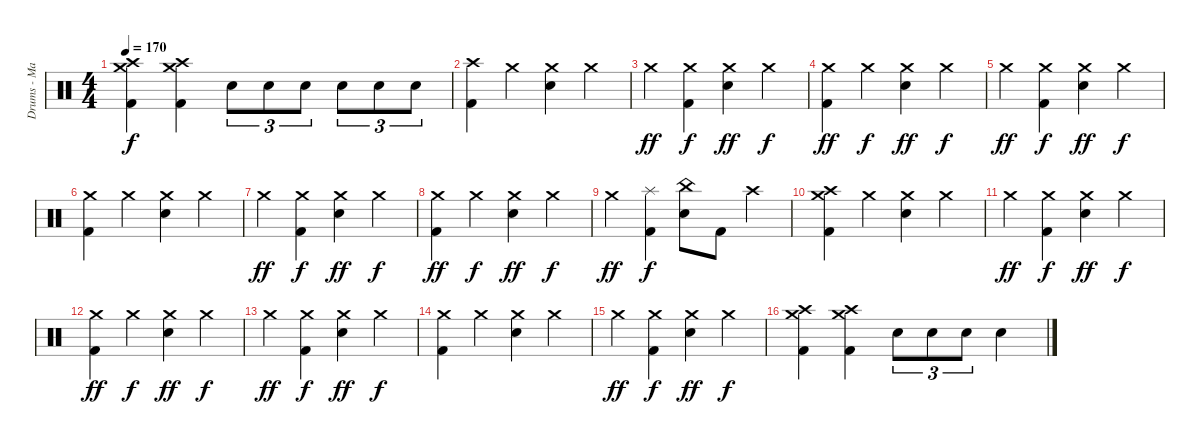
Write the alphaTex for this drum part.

\track ("Drums - Mario Duplantier" "Drums - Ma") {instrument percussion}
\staff {score}
\articulation defaults
\ts (4 4)
\tempo 170
\clef neutral
\ks c
("Crash medium (hit)" "Crash high (hit)" "Kick (hit) 2").4{dy f} ("Crash medium (hit)" "Crash high (hit)" "Kick (hit) 2").4 "Snare (hit) 2".8{tu (3 2)} "Snare (hit) 2".8{tu (3 2)} "Snare (hit) 2".8{tu (3 2)} "Snare (hit) 2".8{tu (3 2)} "Snare (hit) 2".8{tu (3 2)} "Snare (hit) 2".8{tu (3 2)} |
("Crash high (hit)" "Kick (hit) 2").4 "Crash medium (hit)".4 ("Crash medium (hit)" "Snare (hit) 2").4 "Crash medium (hit)".4 |
"Crash medium (hit)".4{dy ff} ("Crash medium (hit)" "Kick (hit) 2").4{dy f} ("Crash medium (hit)" "Snare (hit) 2").4{dy ff} "Crash medium (hit)".4{dy f} |
("Crash medium (hit)" "Kick (hit) 2").4{dy ff} "Crash medium (hit)".4{dy f} ("Crash medium (hit)" "Snare (hit) 2").4{dy ff} "Crash medium (hit)".4{dy f} |
"Crash medium (hit)".4{dy ff} ("Crash medium (hit)" "Kick (hit) 2").4{dy f} ("Crash medium (hit)" "Snare (hit) 2").4{dy ff} "Crash medium (hit)".4{dy f} |
("Crash medium (hit)" "Kick (hit) 2").4 "Crash medium (hit)".4 ("Crash medium (hit)" "Snare (hit) 2").4 "Crash medium (hit)".4 |
"Crash medium (hit)".4{dy ff} ("Crash medium (hit)" "Kick (hit) 2").4{dy f} ("Crash medium (hit)" "Snare (hit) 2").4{dy ff} "Crash medium (hit)".4{dy f} |
("Crash medium (hit)" "Kick (hit) 2").4{dy ff} "Crash medium (hit)".4{dy f} ("Crash medium (hit)" "Snare (hit) 2").4{dy ff} "Crash medium (hit)".4{dy f} |
"Crash medium (hit)".4{dy ff} ("Splash (hit)" "Kick (hit) 2").4{dy f} ("China (hit)" "Snare (hit) 2").8 "Kick (hit) 2".8 "Crash high (hit)".4 |
("Crash medium (hit)" "Crash high (hit)" "Kick (hit) 2").4 "Crash medium (hit)".4 ("Crash medium (hit)" "Snare (hit) 2").4 "Crash medium (hit)".4 |
"Crash medium (hit)".4{dy ff} ("Crash medium (hit)" "Kick (hit) 2").4{dy f} ("Crash medium (hit)" "Snare (hit) 2").4{dy ff} "Crash medium (hit)".4{dy f} |
("Crash medium (hit)" "Kick (hit) 2").4{dy ff} "Crash medium (hit)".4{dy f} ("Crash medium (hit)" "Snare (hit) 2").4{dy ff} "Crash medium (hit)".4{dy f} |
"Crash medium (hit)".4{dy ff} ("Crash medium (hit)" "Kick (hit) 2").4{dy f} ("Crash medium (hit)" "Snare (hit) 2").4{dy ff} "Crash medium (hit)".4{dy f} |
("Crash medium (hit)" "Kick (hit) 2").4 "Crash medium (hit)".4 ("Crash medium (hit)" "Snare (hit) 2").4 "Crash medium (hit)".4 |
"Crash medium (hit)".4{dy ff} ("Crash medium (hit)" "Kick (hit) 2").4{dy f} ("Crash medium (hit)" "Snare (hit) 2").4{dy ff} "Crash medium (hit)".4{dy f} |
("Crash medium (hit)" "Crash high (hit)" "Kick (hit) 2").4 ("Crash medium (hit)" "Crash high (hit)" "Kick (hit) 2").4 "Snare (hit) 2".8{tu (3 2)} "Snare (hit) 2".8{tu (3 2)} "Snare (hit) 2".8{tu (3 2)} "Snare (hit) 2".4
